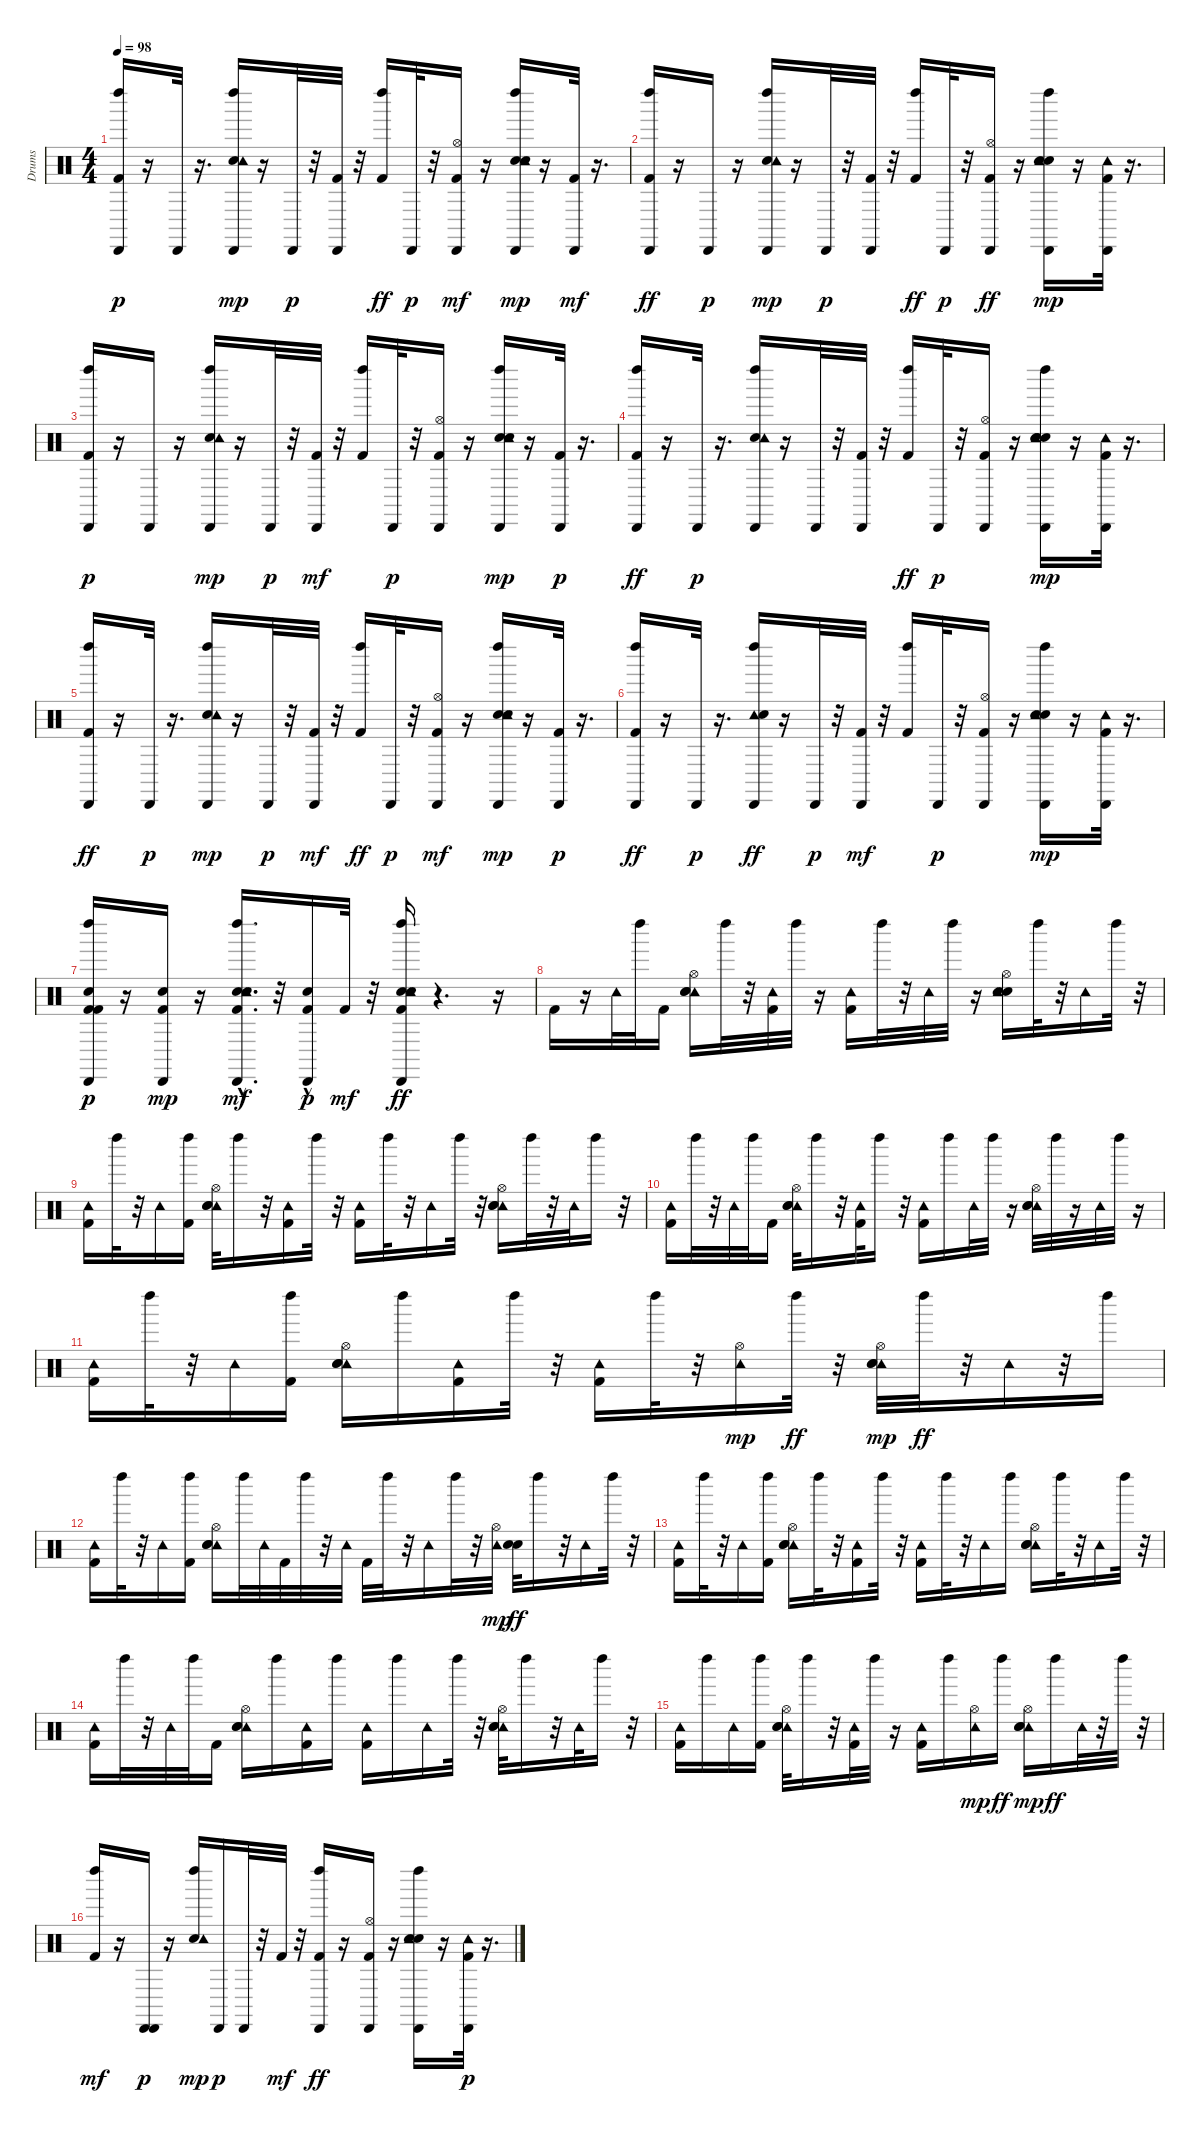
\track ("Drums" "Drums") {instrument percussion}
\staff {score}
\articulation defaults
\ts (4 4)
\tempo 98
\clef neutral
\ks c
("Kick (hit) 2" "Left Maraca (hit)" "Cabasa (hit)").16{dy p} r.16 "Cabasa (hit)".32 r.16{d} ("Cabasa (hit)" "Left Maraca (hit)" "Electric Snare (hit)" "Tambourine (hit)").16{dy mp} r.16 "Cabasa (hit)".32{dy p} r.32 ("Kick (hit) 2" "Cabasa (hit)").32 r.32 ("Kick (hit) 2" "Left Maraca (hit)").16{dy ff} "Cabasa (hit)".32{dy p} r.32 ("Cabasa (hit)" "Hi-Hat (open)" "Kick (hit) 2").16{dy mf} r.16 ("Left Maraca (hit)" "Hand Clap (hit)" "Electric Snare (hit)" "Cabasa (hit)" "Tambourine (hit)").16{dy mp} r.16 ("Cabasa (hit)" "Kick (hit) 2").32{dy mf} r.16{d} |
("Kick (hit) 2" "Cabasa (hit)" "Left Maraca (hit)").16{dy ff} r.16 "Cabasa (hit)".16{dy p} r.16 ("Electric Snare (hit)" "Cabasa (hit)" "Left Maraca (hit)" "Tambourine (hit)").16{dy mp} r.16 "Cabasa (hit)".32{dy p} r.32 ("Kick (hit) 2" "Cabasa (hit)").32 r.32 ("Kick (hit) 2" "Left Maraca (hit)").16{dy ff} "Cabasa (hit)".32{dy p} r.32 ("Cabasa (hit)" "Kick (hit) 2" "Hi-Hat (open)").16{dy ff} r.16 ("Left Maraca (hit)" "Electric Snare (hit)" "Hand Clap (hit)" "Cabasa (hit)" "Tambourine (hit)").16{dy mp} r.16 ("Cabasa (hit)" "Kick (hit) 2" "Tambourine (hit)").32 r.16{d} |
("Kick (hit) 2" "Left Maraca (hit)" "Cabasa (hit)").16{dy p} r.16 "Cabasa (hit)".16 r.16 ("Electric Snare (hit)" "Left Maraca (hit)" "Cabasa (hit)" "Tambourine (hit)").16{dy mp} r.16 "Cabasa (hit)".32{dy p} r.32 ("Cabasa (hit)" "Kick (hit) 2").32{dy mf} r.32 ("Left Maraca (hit)" "Kick (hit) 2").16 "Cabasa (hit)".32{dy p} r.32 ("Hi-Hat (open)" "Kick (hit) 2" "Cabasa (hit)").16 r.16 ("Left Maraca (hit)" "Electric Snare (hit)" "Hand Clap (hit)" "Cabasa (hit)" "Tambourine (hit)").16{dy mp} r.16 ("Kick (hit) 2" "Cabasa (hit)").32{dy p} r.16{d} |
("Cabasa (hit)" "Kick (hit) 2" "Left Maraca (hit)").16{dy ff} r.16 "Cabasa (hit)".32{dy p} r.16{d} ("Electric Snare (hit)" "Left Maraca (hit)" "Tambourine (hit)" "Cabasa (hit)").16 r.16 "Cabasa (hit)".32 r.32 ("Kick (hit) 2" "Cabasa (hit)").32 r.32 ("Kick (hit) 2" "Left Maraca (hit)").16{dy ff} "Cabasa (hit)".32{dy p} r.32 ("Kick (hit) 2" "Hi-Hat (open)" "Cabasa (hit)").16 r.16 ("Left Maraca (hit)" "Cabasa (hit)" "Snare (hit) 2" "Electric Snare (hit)" "Hand Clap (hit)" "Tambourine (hit)").16{dy mp} r.16 ("Kick (hit) 2" "Cabasa (hit)" "Tambourine (hit)").32 r.16{d} |
("Kick (hit) 2" "Cabasa (hit)" "Left Maraca (hit)").16{dy ff} r.16 "Cabasa (hit)".32{dy p} r.16{d} ("Left Maraca (hit)" "Electric Snare (hit)" "Cabasa (hit)" "Tambourine (hit)").16{dy mp} r.16 "Cabasa (hit)".32{dy p} r.32 ("Cabasa (hit)" "Kick (hit) 2").32{dy mf} r.32 ("Kick (hit) 2" "Left Maraca (hit)").16{dy ff} "Cabasa (hit)".32{dy p} r.32 ("Hi-Hat (open)" "Cabasa (hit)" "Kick (hit) 2").16{dy mf} r.16 ("Cabasa (hit)" "Left Maraca (hit)" "Electric Snare (hit)" "Hand Clap (hit)" "Tambourine (hit)").16{dy mp} r.16 ("Kick (hit) 2" "Cabasa (hit)").32{dy p} r.16{d} |
("Kick (hit) 2" "Cabasa (hit)" "Left Maraca (hit)").16{dy ff} r.16 "Cabasa (hit)".32{dy p} r.16{d} ("Tambourine (hit)" "Cabasa (hit)" "Left Maraca (hit)" "Electric Snare (hit)").16{dy ff} r.16 "Cabasa (hit)".32{dy p} r.32 ("Cabasa (hit)" "Kick (hit) 2").32{dy mf} r.32 ("Left Maraca (hit)" "Kick (hit) 2").16 "Cabasa (hit)".32{dy p} r.32 ("Kick (hit) 2" "Hi-Hat (open)" "Cabasa (hit)").16 r.16 ("Cabasa (hit)" "Electric Snare (hit)" "Hand Clap (hit)" "Left Maraca (hit)" "Tambourine (hit)").16{dy mp} r.16 ("Kick (hit) 2" "Cabasa (hit)" "Tambourine (hit)").32 r.16{d} |
("Kick (hit) 2" "Left Maraca (hit)" "Cabasa (hit)" "Kick (hit) 2" "Snare (hit) 2").16{dy p} r.16 ("Cabasa (hit)" "Snare (hit) 2" "Kick (hit) 2").16{dy mp} r.16 ("Cabasa (hit)" "Left Maraca (hit)" "Electric Snare (hit)" "Tambourine (hit)" "Snare (hit) 2"{hac} "Kick (hit) 2").16{d dy mf} r.32 ("Cabasa (hit)" "Snare (hit) 2"{hac} "Kick (hit) 2").16{dy p} "Kick (hit) 2".32{dy mf} r.32 ("Kick (hit) 2" "Electric Snare (hit)" "Cabasa (hit)" "Hand Clap (hit)" "Left Maraca (hit)" "Tambourine (hit)").16{dy ff} r.4{d} r.16 |
"Kick (hit) 2".16 r.16 "Tambourine (hit)".32 "Left Maraca (hit)".32 "Kick (hit) 2".16 ("Tambourine (hit)" "Hi-Hat (open)" "Electric Snare (hit)" "Snare (hit) 2").16 "Left Maraca (hit)".32 r.32 ("Tambourine (hit)" "Kick (hit) 2").32 "Left Maraca (hit)".32 r.16 ("Tambourine (hit)" "Kick (hit) 2").16 "Left Maraca (hit)".32 r.32 "Tambourine (hit)".32 "Left Maraca (hit)".32 r.16 ("Hi-Hat (open)" "Snare (hit) 2" "Electric Snare (hit)" "Tambourine (hit)").16 "Left Maraca (hit)".32 r.32 "Tambourine (hit)".16 "Left Maraca (hit)".32 r.32 |
("Tambourine (hit)" "Kick (hit) 2").16 "Left Maraca (hit)".32 r.32 "Tambourine (hit)".16 ("Left Maraca (hit)" "Kick (hit) 2").16 ("Hi-Hat (open)" "Tambourine (hit)" "Snare (hit) 2" "Electric Snare (hit)").32 "Left Maraca (hit)".16 r.32 ("Tambourine (hit)" "Kick (hit) 2").16 "Left Maraca (hit)".32 r.32 ("Tambourine (hit)" "Kick (hit) 2").16 "Left Maraca (hit)".32 r.32 "Tambourine (hit)".16 "Left Maraca (hit)".32 r.32 ("Tambourine (hit)" "Hi-Hat (open)" "Electric Snare (hit)" "Snare (hit) 2").16 "Left Maraca (hit)".32 r.32 "Tambourine (hit)".32 "Left Maraca (hit)".16 r.32 |
("Tambourine (hit)" "Kick (hit) 2").16 "Left Maraca (hit)".32 r.32 "Tambourine (hit)".32 "Left Maraca (hit)".32 "Kick (hit) 2".16 ("Hi-Hat (open)" "Tambourine (hit)" "Snare (hit) 2" "Electric Snare (hit)").32 "Left Maraca (hit)".16 r.32 ("Tambourine (hit)" "Kick (hit) 2").32 "Left Maraca (hit)".16 r.32 ("Tambourine (hit)" "Kick (hit) 2").16 "Left Maraca (hit)".16 "Tambourine (hit)".32 "Left Maraca (hit)".32 r.16 ("Tambourine (hit)" "Hi-Hat (open)" "Electric Snare (hit)" "Snare (hit) 2").32 "Left Maraca (hit)".32 r.16 "Tambourine (hit)".32 "Left Maraca (hit)".32 r.16 |
("Tambourine (hit)" "Kick (hit) 2").16 "Left Maraca (hit)".32 r.32 "Tambourine (hit)".16 ("Left Maraca (hit)" "Kick (hit) 2").16 ("Tambourine (hit)" "Hi-Hat (open)" "Electric Snare (hit)" "Snare (hit) 2").16 "Left Maraca (hit)".16 ("Tambourine (hit)" "Kick (hit) 2").16 "Left Maraca (hit)".32 r.32 ("Kick (hit) 2" "Tambourine (hit)").16 "Left Maraca (hit)".32 r.32 ("Tambourine (hit)" "Hi-Hat (open)").16{dy mp} "Left Maraca (hit)".32{dy ff} r.32 ("Tambourine (hit)" "Snare (hit) 2" "Electric Snare (hit)" "Hi-Hat (open)").32{dy mp} "Left Maraca (hit)".32{dy ff} r.32 "Tambourine (hit)".16 r.32 "Left Maraca (hit)".16 |
("Tambourine (hit)" "Kick (hit) 2").16 "Left Maraca (hit)".32 r.32 "Tambourine (hit)".16 ("Left Maraca (hit)" "Kick (hit) 2").16 ("Tambourine (hit)" "Hi-Hat (open)" "Snare (hit) 2" "Electric Snare (hit)").16 "Left Maraca (hit)".32 "Tambourine (hit)".32 "Kick (hit) 2".32 "Left Maraca (hit)".32 r.32 "Tambourine (hit)".32 "Kick (hit) 2".32 "Left Maraca (hit)".32 r.32 "Tambourine (hit)".16 "Left Maraca (hit)".32 r.32 ("Tambourine (hit)" "Hi-Hat (open)").32{dy mp} ("Electric Snare (hit)" "Snare (hit) 2").32{dy ff} "Left Maraca (hit)".16 r.32 "Tambourine (hit)".16 "Left Maraca (hit)".32 r.32 |
("Tambourine (hit)" "Kick (hit) 2").16 "Left Maraca (hit)".32 r.32 "Tambourine (hit)".16 ("Left Maraca (hit)" "Kick (hit) 2").16 ("Tambourine (hit)" "Hi-Hat (open)" "Snare (hit) 2" "Electric Snare (hit)").16 "Left Maraca (hit)".32 r.32 ("Tambourine (hit)" "Kick (hit) 2").16 "Left Maraca (hit)".32 r.32 ("Kick (hit) 2" "Tambourine (hit)").16 "Left Maraca (hit)".32 r.32 "Tambourine (hit)".16 "Left Maraca (hit)".16 ("Tambourine (hit)" "Snare (hit) 2" "Hi-Hat (open)" "Electric Snare (hit)").16 "Left Maraca (hit)".32 r.32 "Tambourine (hit)".16 "Left Maraca (hit)".32 r.32 |
("Tambourine (hit)" "Kick (hit) 2").16 "Left Maraca (hit)".32 r.32 "Tambourine (hit)".32 "Left Maraca (hit)".32 "Kick (hit) 2".16 ("Tambourine (hit)" "Hi-Hat (open)" "Electric Snare (hit)" "Snare (hit) 2").16 "Left Maraca (hit)".16 ("Tambourine (hit)" "Kick (hit) 2").16 "Left Maraca (hit)".16 ("Tambourine (hit)" "Kick (hit) 2").16 "Left Maraca (hit)".16 "Tambourine (hit)".16 "Left Maraca (hit)".32 r.32 ("Tambourine (hit)" "Hi-Hat (open)" "Snare (hit) 2" "Electric Snare (hit)").32 "Left Maraca (hit)".16 r.32 "Tambourine (hit)".32 "Left Maraca (hit)".16 r.32 |
("Tambourine (hit)" "Kick (hit) 2").16 "Left Maraca (hit)".16 "Tambourine (hit)".16 ("Left Maraca (hit)" "Kick (hit) 2").16 ("Tambourine (hit)" "Hi-Hat (open)" "Electric Snare (hit)" "Snare (hit) 2").32 "Left Maraca (hit)".16 r.32 ("Tambourine (hit)" "Kick (hit) 2").32 "Left Maraca (hit)".32 r.16 ("Tambourine (hit)" "Kick (hit) 2").16 "Left Maraca (hit)".16 ("Tambourine (hit)" "Hi-Hat (open)").16{dy mp} "Left Maraca (hit)".16{dy ff} ("Tambourine (hit)" "Electric Snare (hit)" "Snare (hit) 2" "Hi-Hat (open)").16{dy mp} "Left Maraca (hit)".16{dy ff} "Tambourine (hit)".32 r.32 "Left Maraca (hit)".32 r.32 |
("Left Maraca (hit)" "Kick (hit) 2").16{dy mf} r.16 ("Cabasa (hit)" "Cabasa (hit)").16{dy p} r.16 ("Left Maraca (hit)" "Electric Snare (hit)" "Tambourine (hit)").16{dy mp} "Cabasa (hit)".16{dy p} "Cabasa (hit)".32 r.32 "Kick (hit) 2".32{dy mf} r.32 ("Cabasa (hit)" "Kick (hit) 2" "Left Maraca (hit)").16{dy ff} r.16 ("Cabasa (hit)" "Kick (hit) 2" "Hi-Hat (open)").16 r.16 ("Hand Clap (hit)" "Left Maraca (hit)" "Cabasa (hit)" "Tambourine (hit)" "Electric Snare (hit)").16 r.16 ("Kick (hit) 2" "Tambourine (hit)" "Cabasa (hit)").32{dy p} r.16{d}
